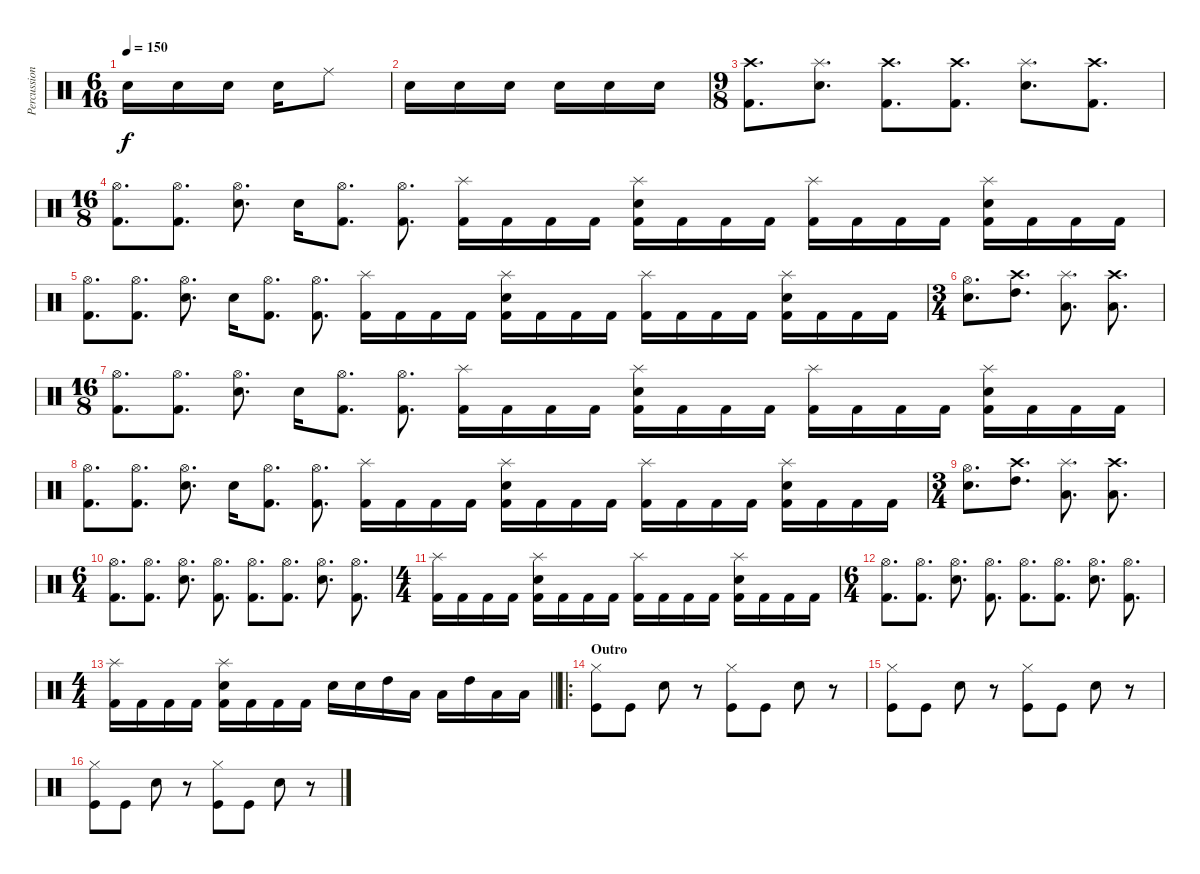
\track ("Percussion" "Percussion") {instrument percussion}
\staff {score}
\articulation defaults
\ts (6 16)
\tempo 150
\clef neutral
\ks c "Electric Snare (hit)".16{dy f} "Electric Snare (hit)".16 "Electric Snare (hit)".16 "Electric Snare (hit)".16 "Ride (middle)".8
|
"Electric Snare (hit)".16 "Electric Snare (hit)".16 "Electric Snare (hit)".16 "Electric Snare (hit)".16 "Electric Snare (hit)".16 "Electric Snare (hit)".16 |
\ts (9 8)
("Crash high (hit)" "Kick (hit) 2").8{d} ("Splash (hit)" "Electric Snare (hit)").8{d} ("Crash high (hit)" "Kick (hit) 2").8{d} ("Crash high (hit)" "Kick (hit) 2").8{d} ("Splash (hit)" "Electric Snare (hit)").8{d} ("Crash high (hit)" "Kick (hit) 2").8{d} |
\ts (16 8)
("Hi-Hat (open)" "Kick (hit) 2").8{d} ("Hi-Hat (open)" "Kick (hit) 2").8{d} ("Hi-Hat (open)" "Electric Snare (hit)").8{d} "Electric Snare (hit)".16 ("Hi-Hat (open)" "Kick (hit) 2").8{d} ("Hi-Hat (open)" "Kick (hit) 2").8{d} ("Splash (hit)" "Kick (hit) 2").16 "Kick (hit) 2".16 "Kick (hit) 2".16 "Kick (hit) 2".16 ("Splash (hit)" "Electric Snare (hit)" "Kick (hit) 2").16 "Kick (hit) 2".16 "Kick (hit) 2".16 "Kick (hit) 2".16 ("Splash (hit)" "Kick (hit) 2").16 "Kick (hit) 2".16 "Kick (hit) 2".16 "Kick (hit) 2".16 ("Splash (hit)" "Electric Snare (hit)" "Kick (hit) 2").16 "Kick (hit) 2".16 "Kick (hit) 2".16 "Kick (hit) 2".16 |
("Hi-Hat (open)" "Kick (hit) 2").8{d} ("Hi-Hat (open)" "Kick (hit) 2").8{d} ("Hi-Hat (open)" "Electric Snare (hit)").8{d} "Electric Snare (hit)".16 ("Hi-Hat (open)" "Kick (hit) 2").8{d} ("Hi-Hat (open)" "Kick (hit) 2").8{d} ("Splash (hit)" "Kick (hit) 2").16 "Kick (hit) 2".16 "Kick (hit) 2".16 "Kick (hit) 2".16 ("Splash (hit)" "Electric Snare (hit)" "Kick (hit) 2").16 "Kick (hit) 2".16 "Kick (hit) 2".16 "Kick (hit) 2".16 ("Splash (hit)" "Kick (hit) 2").16 "Kick (hit) 2".16 "Kick (hit) 2".16 "Kick (hit) 2".16 ("Splash (hit)" "Electric Snare (hit)" "Kick (hit) 2").16 "Kick (hit) 2".16 "Kick (hit) 2".16 "Kick (hit) 2".16 |
\ts (3 4)
("Hi-Hat (open)" "Electric Snare (hit)").8{d} ("Crash high (hit)" "High Tom (hit)").8{d} ("Splash (hit)" "Low Tom (hit)").8{d} ("Crash high (hit)" "Low Floor Tom (hit)").8{d} |
\ts (16 8)
("Hi-Hat (open)" "Kick (hit) 2").8{d} ("Hi-Hat (open)" "Kick (hit) 2").8{d} ("Hi-Hat (open)" "Electric Snare (hit)").8{d} "Electric Snare (hit)".16 ("Hi-Hat (open)" "Kick (hit) 2").8{d} ("Hi-Hat (open)" "Kick (hit) 2").8{d} ("Splash (hit)" "Kick (hit) 2").16 "Kick (hit) 2".16 "Kick (hit) 2".16 "Kick (hit) 2".16 ("Splash (hit)" "Electric Snare (hit)" "Kick (hit) 2").16 "Kick (hit) 2".16 "Kick (hit) 2".16 "Kick (hit) 2".16 ("Splash (hit)" "Kick (hit) 2").16 "Kick (hit) 2".16 "Kick (hit) 2".16 "Kick (hit) 2".16 ("Splash (hit)" "Electric Snare (hit)" "Kick (hit) 2").16 "Kick (hit) 2".16 "Kick (hit) 2".16 "Kick (hit) 2".16 |
("Hi-Hat (open)" "Kick (hit) 2").8{d} ("Hi-Hat (open)" "Kick (hit) 2").8{d} ("Hi-Hat (open)" "Electric Snare (hit)").8{d} "Electric Snare (hit)".16 ("Hi-Hat (open)" "Kick (hit) 2").8{d} ("Hi-Hat (open)" "Kick (hit) 2").8{d} ("Splash (hit)" "Kick (hit) 2").16 "Kick (hit) 2".16 "Kick (hit) 2".16 "Kick (hit) 2".16 ("Splash (hit)" "Electric Snare (hit)" "Kick (hit) 2").16 "Kick (hit) 2".16 "Kick (hit) 2".16 "Kick (hit) 2".16 ("Splash (hit)" "Kick (hit) 2").16 "Kick (hit) 2".16 "Kick (hit) 2".16 "Kick (hit) 2".16 ("Splash (hit)" "Electric Snare (hit)" "Kick (hit) 2").16 "Kick (hit) 2".16 "Kick (hit) 2".16 "Kick (hit) 2".16 |
\ts (3 4)
("Hi-Hat (open)" "Electric Snare (hit)").8{d} ("Crash high (hit)" "High Tom (hit)").8{d} ("Splash (hit)" "Low Tom (hit)").8{d} ("Crash high (hit)" "Low Floor Tom (hit)").8{d} |
\ts (6 4)
("Hi-Hat (open)" "Kick (hit) 2").8{d} ("Hi-Hat (open)" "Kick (hit) 2").8{d} ("Hi-Hat (open)" "Electric Snare (hit)").8{d} ("Hi-Hat (open)" "Kick (hit) 2").8{d} ("Hi-Hat (open)" "Kick (hit) 2").8{d} ("Hi-Hat (open)" "Kick (hit) 2").8{d} ("Hi-Hat (open)" "Electric Snare (hit)").8{d} ("Hi-Hat (open)" "Kick (hit) 2").8{d} |
\ts (4 4)
("Splash (hit)" "Kick (hit) 2").16 "Kick (hit) 2".16 "Kick (hit) 2".16 "Kick (hit) 2".16 ("Splash (hit)" "Electric Snare (hit)" "Kick (hit) 2").16 "Kick (hit) 2".16 "Kick (hit) 2".16 "Kick (hit) 2".16 ("Splash (hit)" "Kick (hit) 2").16 "Kick (hit) 2".16 "Kick (hit) 2".16 "Kick (hit) 2".16 ("Splash (hit)" "Electric Snare (hit)" "Kick (hit) 2").16 "Kick (hit) 2".16 "Kick (hit) 2".16 "Kick (hit) 2".16 |
\ts (6 4)
("Hi-Hat (open)" "Kick (hit) 2").8{d} ("Hi-Hat (open)" "Kick (hit) 2").8{d} ("Hi-Hat (open)" "Electric Snare (hit)").8{d} ("Hi-Hat (open)" "Kick (hit) 2").8{d} ("Hi-Hat (open)" "Kick (hit) 2").8{d} ("Hi-Hat (open)" "Kick (hit) 2").8{d} ("Hi-Hat (open)" "Electric Snare (hit)").8{d} ("Hi-Hat (open)" "Kick (hit) 2").8{d} |
\ts (4 4)
\barLineRight lightlight
("Splash (hit)" "Kick (hit) 2").16 "Kick (hit) 2".16 "Kick (hit) 2".16 "Kick (hit) 2".16 ("Splash (hit)" "Electric Snare (hit)" "Kick (hit) 2").16 "Kick (hit) 2".16 "Kick (hit) 2".16 "Kick (hit) 2".16 "Electric Snare (hit)".16 "Electric Snare (hit)".16 "High Tom (hit)".16 "Low Tom (hit)".16 "Low Floor Tom (hit)".16 "High Tom (hit)".16 "Low Tom (hit)".16 "Low Floor Tom (hit)".16 |
\ro
\section ("" "Outro")
("Kick (hit)" "Hi-Hat (closed)").8 "Kick (hit)".8 "Hand Clap (hit)".8 r.8 ("Kick (hit)" "Hi-Hat (closed)").8 "Kick (hit)".8 "Hand Clap (hit)".8 r.8 |
("Kick (hit)" "Hi-Hat (closed)").8 "Kick (hit)".8 "Hand Clap (hit)".8 r.8 ("Kick (hit)" "Hi-Hat (closed)").8 "Kick (hit)".8 "Hand Clap (hit)".8 r.8 |
("Kick (hit)" "Hi-Hat (closed)").8 "Kick (hit)".8 "Hand Clap (hit)".8 r.8 ("Kick (hit)" "Hi-Hat (closed)").8 "Kick (hit)".8 "Hand Clap (hit)".8 r.8
